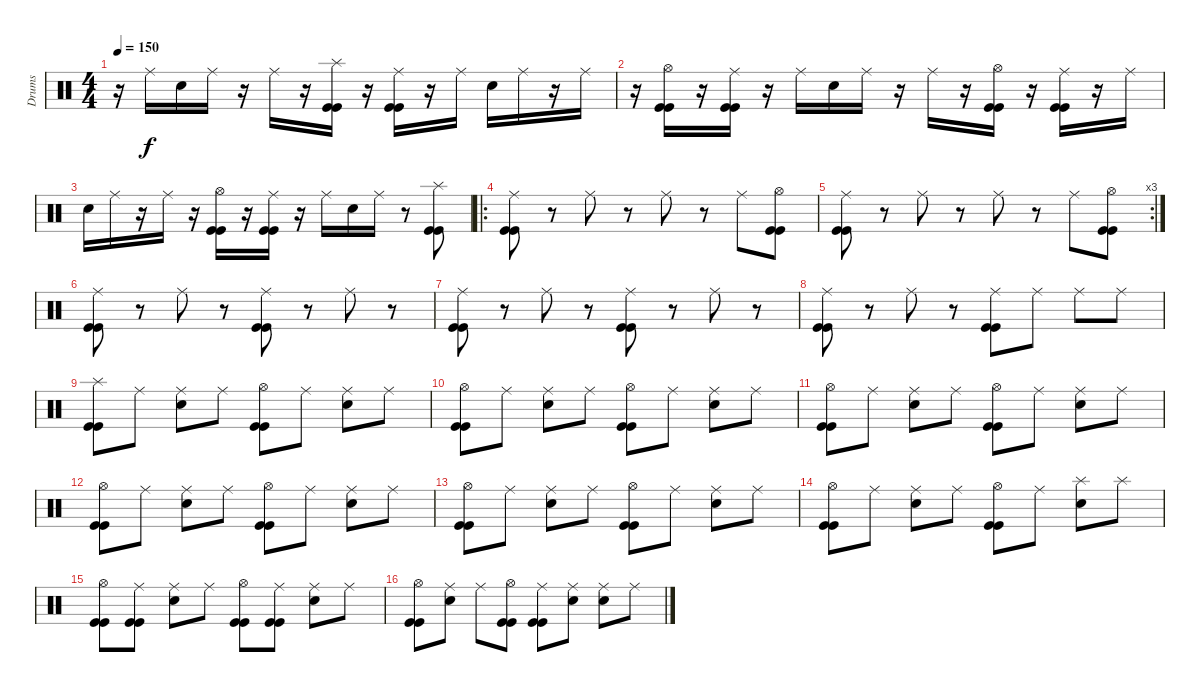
\track ("Drums" "Drums") {instrument percussion}
\staff {score}
\articulation defaults
\ts (4 4)
\tempo 150
\clef neutral
\ks c
r.16{dy f} "Ride (middle)".16 "Snare (hit) 2".16 "Ride (middle)".16 r.16 "Ride (middle)".16 r.16 ("Splash (hit)" "Kick (hit)" "Kick (hit)").16 r.16 ("Ride (middle)" "Kick (hit)" "Kick (hit)").16 r.16 "Ride (middle)".16 "Snare (hit) 2".16 "Ride (middle)".16 r.16 "Ride (middle)".16 |
r.16 ("Hi-Hat (open)" "Kick (hit)" "Kick (hit)").16 r.16 ("Ride (middle)" "Kick (hit)" "Kick (hit)").16 r.16 "Ride (middle)".16 "Snare (hit) 2".16 "Ride (middle)".16 r.16 "Ride (middle)".16 r.16 ("Hi-Hat (open)" "Kick (hit)" "Kick (hit)").16 r.16 ("Ride (middle)" "Kick (hit)" "Kick (hit)").16 r.16 "Ride (middle)".16 |
"Snare (hit) 2".16 "Ride (middle)".16 r.16 "Ride (middle)".16 r.16 ("Hi-Hat (open)" "Kick (hit)" "Kick (hit)").16 r.16 ("Ride (middle)" "Kick (hit)" "Kick (hit)").16 r.16 "Ride (middle)".16 "Snare (hit) 2".16 "Ride (middle)".16 r.8 ("Splash (hit)" "Kick (hit)" "Kick (hit)").8 |
\ro
("Ride (middle)" "Kick (hit)" "Kick (hit)").8 r.8 "Ride (middle)".8 r.8 "Ride (middle)".8 r.8 "Ride (middle)".8 ("Hi-Hat (open)" "Kick (hit)" "Kick (hit)").8 |
\rc 3
("Ride (middle)" "Kick (hit)" "Kick (hit)").8 r.8 "Ride (middle)".8 r.8 "Ride (middle)".8 r.8 "Ride (middle)".8 ("Hi-Hat (open)" "Kick (hit)" "Kick (hit)").8 |
("Ride (middle)" "Kick (hit)" "Kick (hit)").8 r.8 "Ride (middle)".8 r.8 ("Ride (middle)" "Kick (hit)" "Kick (hit)").8 r.8 "Ride (middle)".8 r.8 |
("Ride (middle)" "Kick (hit)" "Kick (hit)").8 r.8 "Ride (middle)".8 r.8 ("Ride (middle)" "Kick (hit)" "Kick (hit)").8 r.8 "Ride (middle)".8 r.8 |
("Ride (middle)" "Kick (hit)" "Kick (hit)").8 r.8 "Ride (middle)".8 r.8 ("Ride (middle)" "Kick (hit)" "Kick (hit)").8 "Ride (middle)".8 "Ride (middle)".8 "Ride (middle)".8 |
("Splash (hit)" "Kick (hit)" "Kick (hit)").8 "Ride (middle)".8 ("Ride (middle)" "Snare (hit) 2").8 "Ride (middle)".8 ("Hi-Hat (open)" "Kick (hit)" "Kick (hit)").8 "Ride (middle)".8 ("Ride (middle)" "Snare (hit) 2").8 "Ride (middle)".8 |
("Hi-Hat (open)" "Kick (hit)" "Kick (hit)").8 "Ride (middle)".8 ("Ride (middle)" "Snare (hit) 2").8 "Ride (middle)".8 ("Hi-Hat (open)" "Kick (hit)" "Kick (hit)").8 "Ride (middle)".8 ("Ride (middle)" "Snare (hit) 2").8 "Ride (middle)".8 |
("Hi-Hat (open)" "Kick (hit)" "Kick (hit)").8 "Ride (middle)".8 ("Ride (middle)" "Snare (hit) 2").8 "Ride (middle)".8 ("Hi-Hat (open)" "Kick (hit)" "Kick (hit)").8 "Ride (middle)".8 ("Ride (middle)" "Snare (hit) 2").8 "Ride (middle)".8 |
("Hi-Hat (open)" "Kick (hit)" "Kick (hit)").8 "Ride (middle)".8 ("Ride (middle)" "Snare (hit) 2").8 "Ride (middle)".8 ("Hi-Hat (open)" "Kick (hit)" "Kick (hit)").8 "Ride (middle)".8 ("Ride (middle)" "Snare (hit) 2").8 "Ride (middle)".8 |
("Hi-Hat (open)" "Kick (hit)" "Kick (hit)").8 "Ride (middle)".8 ("Ride (middle)" "Snare (hit) 2").8 "Ride (middle)".8 ("Hi-Hat (open)" "Kick (hit)" "Kick (hit)").8 "Ride (middle)".8 ("Ride (middle)" "Snare (hit) 2").8 "Ride (middle)".8 |
("Hi-Hat (open)" "Kick (hit)" "Kick (hit)").8 "Ride (middle)".8 ("Ride (middle)" "Snare (hit) 2").8 "Ride (middle)".8 ("Hi-Hat (open)" "Kick (hit)" "Kick (hit)").8 "Ride (middle)".8 ("Splash (hit)" "Snare (hit) 2").8 "Splash (hit)".8 |
("Hi-Hat (open)" "Kick (hit)" "Kick (hit)").8 ("Ride (middle)" "Kick (hit)" "Kick (hit)").8 ("Ride (middle)" "Snare (hit) 2").8 "Ride (middle)".8 ("Hi-Hat (open)" "Kick (hit)" "Kick (hit)").8 ("Ride (middle)" "Kick (hit)" "Kick (hit)").8 ("Ride (middle)" "Snare (hit) 2").8 "Ride (middle)".8 |
("Hi-Hat (open)" "Kick (hit)" "Kick (hit)").8 ("Ride (middle)" "Snare (hit) 2").8 "Ride (middle)".8 ("Hi-Hat (open)" "Kick (hit)" "Kick (hit)").8 ("Ride (middle)" "Kick (hit)" "Kick (hit)").8 ("Ride (middle)" "Snare (hit) 2").8 ("Ride (middle)" "Snare (hit) 2").8 "Ride (middle)".8
